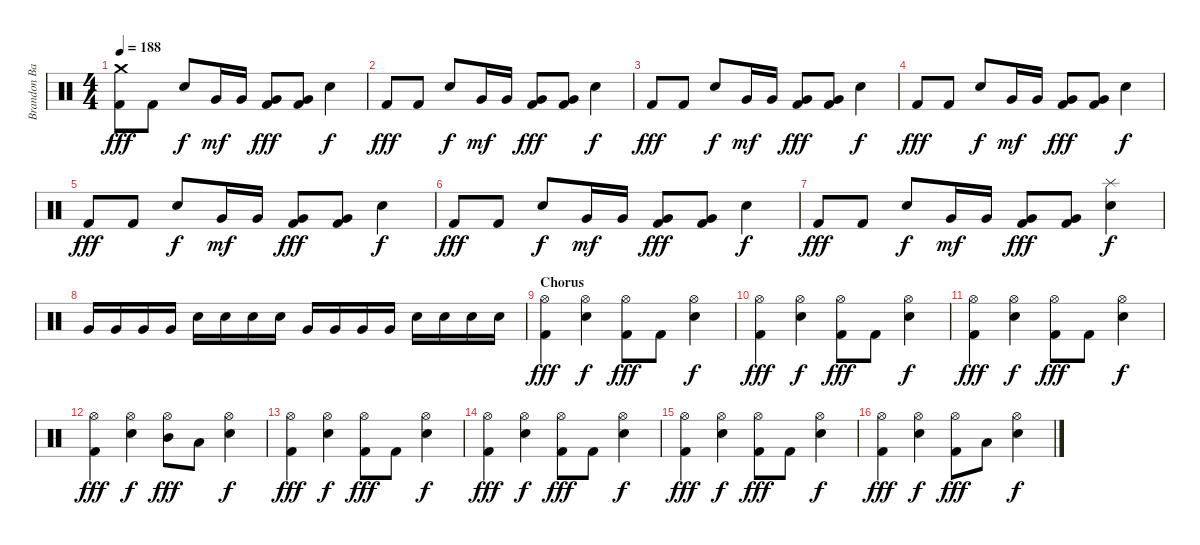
\track ("Brandon Barnes (Drums)" "Brandon Ba") {instrument percussion}
\staff {score}
\articulation defaults
\ts (4 4)
\tempo 188
\clef neutral
\ks c
("Crash medium (hit)" "Kick (hit) 2").8{dy fff} "Kick (hit) 2".8 "Electric Snare (hit)".8{dy f} "Very Low Tom (hit)".16{dy mf} "Very Low Tom (hit)".16 ("Very Low Tom (hit)" "Kick (hit) 2").8{dy fff} ("Very Low Tom (hit)" "Kick (hit) 2").8 "Electric Snare (hit)".4{dy f} |
"Kick (hit) 2".8{dy fff} "Kick (hit) 2".8 "Electric Snare (hit)".8{dy f} "Very Low Tom (hit)".16{dy mf} "Very Low Tom (hit)".16 ("Very Low Tom (hit)" "Kick (hit) 2").8{dy fff} ("Very Low Tom (hit)" "Kick (hit) 2").8 "Electric Snare (hit)".4{dy f} |
"Kick (hit) 2".8{dy fff} "Kick (hit) 2".8 "Electric Snare (hit)".8{dy f} "Very Low Tom (hit)".16{dy mf} "Very Low Tom (hit)".16 ("Very Low Tom (hit)" "Kick (hit) 2").8{dy fff} ("Very Low Tom (hit)" "Kick (hit) 2").8 "Electric Snare (hit)".4{dy f} |
"Kick (hit) 2".8{dy fff} "Kick (hit) 2".8 "Electric Snare (hit)".8{dy f} "Very Low Tom (hit)".16{dy mf} "Very Low Tom (hit)".16 ("Very Low Tom (hit)" "Kick (hit) 2").8{dy fff} ("Very Low Tom (hit)" "Kick (hit) 2").8 "Electric Snare (hit)".4{dy f} |
"Kick (hit) 2".8{dy fff} "Kick (hit) 2".8 "Electric Snare (hit)".8{dy f} "Very Low Tom (hit)".16{dy mf} "Very Low Tom (hit)".16 ("Very Low Tom (hit)" "Kick (hit) 2").8{dy fff} ("Very Low Tom (hit)" "Kick (hit) 2").8 "Electric Snare (hit)".4{dy f} |
"Kick (hit) 2".8{dy fff} "Kick (hit) 2".8 "Electric Snare (hit)".8{dy f} "Very Low Tom (hit)".16{dy mf} "Very Low Tom (hit)".16 ("Very Low Tom (hit)" "Kick (hit) 2").8{dy fff} ("Very Low Tom (hit)" "Kick (hit) 2").8 "Electric Snare (hit)".4{dy f} |
"Kick (hit) 2".8{dy fff} "Kick (hit) 2".8 "Electric Snare (hit)".8{dy f} "Very Low Tom (hit)".16{dy mf} "Very Low Tom (hit)".16 ("Very Low Tom (hit)" "Kick (hit) 2").8{dy fff} ("Very Low Tom (hit)" "Kick (hit) 2").8 ("Splash (hit)" "Electric Snare (hit)").4{dy f} |
"Very Low Tom (hit)".16 "Very Low Tom (hit)".16 "Very Low Tom (hit)".16 "Very Low Tom (hit)".16 "Electric Snare (hit)".16 "Electric Snare (hit)".16 "Electric Snare (hit)".16 "Electric Snare (hit)".16 "Very Low Tom (hit)".16 "Very Low Tom (hit)".16 "Very Low Tom (hit)".16 "Very Low Tom (hit)".16 "Electric Snare (hit)".16 "Electric Snare (hit)".16 "Electric Snare (hit)".16 "Electric Snare (hit)".16 |
\section ("" "Chorus")
("Hi-Hat (open)" "Kick (hit) 2").4{dy fff} ("Hi-Hat (open)" "Electric Snare (hit)").4{dy f} ("Hi-Hat (open)" "Kick (hit) 2").8{dy fff} "Kick (hit) 2".8 ("Hi-Hat (open)" "Electric Snare (hit)").4{dy f} |
("Hi-Hat (open)" "Kick (hit) 2").4{dy fff} ("Hi-Hat (open)" "Electric Snare (hit)").4{dy f} ("Hi-Hat (open)" "Kick (hit) 2").8{dy fff} "Kick (hit) 2".8 ("Hi-Hat (open)" "Electric Snare (hit)").4{dy f} |
("Hi-Hat (open)" "Kick (hit) 2").4{dy fff} ("Hi-Hat (open)" "Electric Snare (hit)").4{dy f} ("Hi-Hat (open)" "Kick (hit) 2").8{dy fff} "Kick (hit) 2".8 ("Hi-Hat (open)" "Electric Snare (hit)").4{dy f} |
("Hi-Hat (open)" "Kick (hit) 2").4{dy fff} ("Hi-Hat (open)" "Electric Snare (hit)").4{dy f} ("Hi-Hat (open)" "Mid Tom (hit)").8{dy fff} "Low Tom (hit)".8 ("Hi-Hat (open)" "Electric Snare (hit)").4{dy f} |
("Hi-Hat (open)" "Kick (hit) 2").4{dy fff} ("Hi-Hat (open)" "Electric Snare (hit)").4{dy f} ("Hi-Hat (open)" "Kick (hit) 2").8{dy fff} "Kick (hit) 2".8 ("Hi-Hat (open)" "Electric Snare (hit)").4{dy f} |
("Hi-Hat (open)" "Kick (hit) 2").4{dy fff} ("Hi-Hat (open)" "Electric Snare (hit)").4{dy f} ("Hi-Hat (open)" "Kick (hit) 2").8{dy fff} "Kick (hit) 2".8 ("Hi-Hat (open)" "Electric Snare (hit)").4{dy f} |
("Hi-Hat (open)" "Kick (hit) 2").4{dy fff} ("Hi-Hat (open)" "Electric Snare (hit)").4{dy f} ("Hi-Hat (open)" "Kick (hit) 2").8{dy fff} "Kick (hit) 2".8 ("Hi-Hat (open)" "Electric Snare (hit)").4{dy f} |
("Hi-Hat (open)" "Kick (hit) 2").4{dy fff} ("Hi-Hat (open)" "Electric Snare (hit)").4{dy f} ("Hi-Hat (open)" "Kick (hit) 2").8{dy fff} "Low Tom (hit)".8 ("Hi-Hat (open)" "Electric Snare (hit)").4{dy f}
